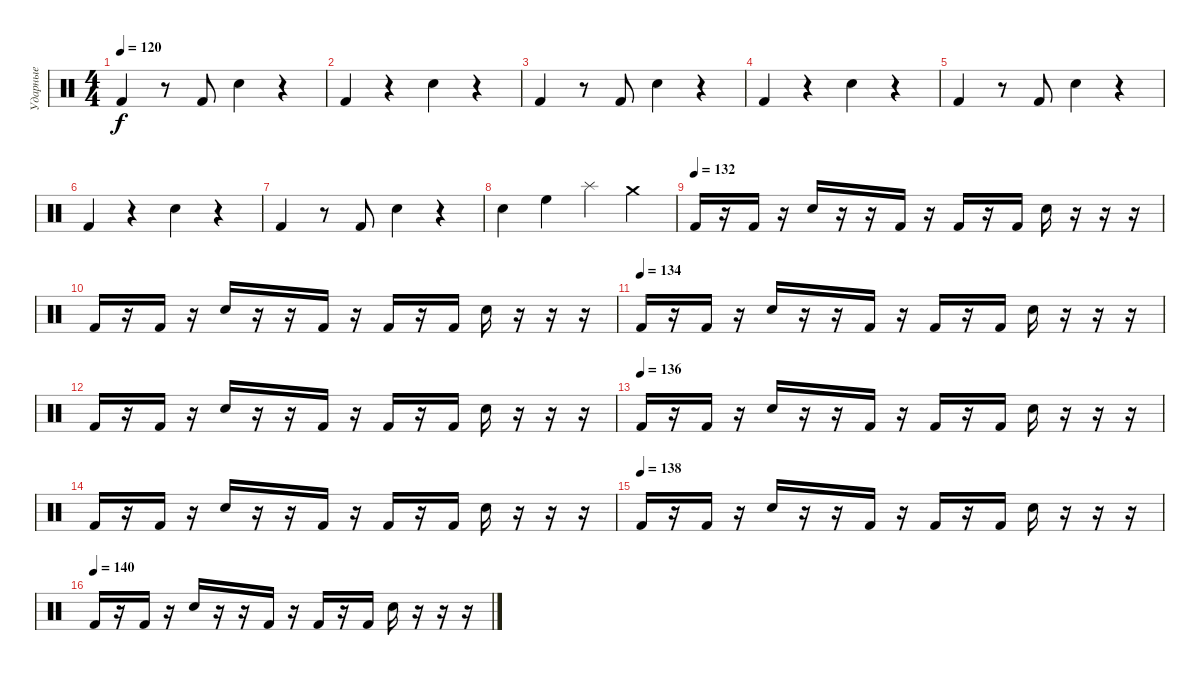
\track ("Ударные" "Ударные") {instrument percussion}
\staff {score}
\articulation defaults
\ts (4 4)
\tempo 120
\clef neutral
\ks c "Kick (hit) 2".4{dy f}
r.8 "Kick (hit) 2".8 "Electric Snare (hit)".4 r.4 |
"Kick (hit) 2".4 r.4 "Electric Snare (hit)".4 r.4 |
"Kick (hit) 2".4 r.8 "Kick (hit) 2".8 "Electric Snare (hit)".4 r.4 |
"Kick (hit) 2".4 r.4 "Electric Snare (hit)".4 r.4 |
"Kick (hit) 2".4 r.8 "Kick (hit) 2".8 "Electric Snare (hit)".4 r.4 |
"Kick (hit) 2".4 r.4 "Electric Snare (hit)".4 r.4 |
"Kick (hit) 2".4 r.8 "Kick (hit) 2".8 "Electric Snare (hit)".4 r.4 |
"Snare (hit) 2".4 "High Floor Tom (hit)".4 "Splash (hit)".4 "Crash medium (hit)".4 |
\tempo (132)
"Kick (hit) 2".16 r.16 "Kick (hit) 2".16 r.16 "Electric Snare (hit)".16 r.16 r.16 "Kick (hit) 2".16 r.16 "Kick (hit) 2".16 r.16 "Kick (hit) 2".16 "Electric Snare (hit)".16 r.16 r.16 r.16 |
"Kick (hit) 2".16 r.16 "Kick (hit) 2".16 r.16 "Electric Snare (hit)".16 r.16 r.16 "Kick (hit) 2".16 r.16 "Kick (hit) 2".16 r.16 "Kick (hit) 2".16 "Electric Snare (hit)".16 r.16 r.16 r.16 |
\tempo (134)
"Kick (hit) 2".16 r.16 "Kick (hit) 2".16 r.16 "Electric Snare (hit)".16 r.16 r.16 "Kick (hit) 2".16 r.16 "Kick (hit) 2".16 r.16 "Kick (hit) 2".16 "Electric Snare (hit)".16 r.16 r.16 r.16 |
"Kick (hit) 2".16 r.16 "Kick (hit) 2".16 r.16 "Electric Snare (hit)".16 r.16 r.16 "Kick (hit) 2".16 r.16 "Kick (hit) 2".16 r.16 "Kick (hit) 2".16 "Electric Snare (hit)".16 r.16 r.16 r.16 |
\tempo (136)
"Kick (hit) 2".16 r.16 "Kick (hit) 2".16 r.16 "Electric Snare (hit)".16 r.16 r.16 "Kick (hit) 2".16 r.16 "Kick (hit) 2".16 r.16 "Kick (hit) 2".16 "Electric Snare (hit)".16 r.16 r.16 r.16 |
"Kick (hit) 2".16 r.16 "Kick (hit) 2".16 r.16 "Electric Snare (hit)".16 r.16 r.16 "Kick (hit) 2".16 r.16 "Kick (hit) 2".16 r.16 "Kick (hit) 2".16 "Electric Snare (hit)".16 r.16 r.16 r.16 |
\tempo (138)
"Kick (hit) 2".16 r.16 "Kick (hit) 2".16 r.16 "Electric Snare (hit)".16 r.16 r.16 "Kick (hit) 2".16 r.16 "Kick (hit) 2".16 r.16 "Kick (hit) 2".16 "Electric Snare (hit)".16 r.16 r.16 r.16 |
\tempo (140)
"Kick (hit) 2".16 r.16 "Kick (hit) 2".16 r.16 "Electric Snare (hit)".16 r.16 r.16 "Kick (hit) 2".16 r.16 "Kick (hit) 2".16 r.16 "Kick (hit) 2".16 "Electric Snare (hit)".16 r.16 r.16 r.16
